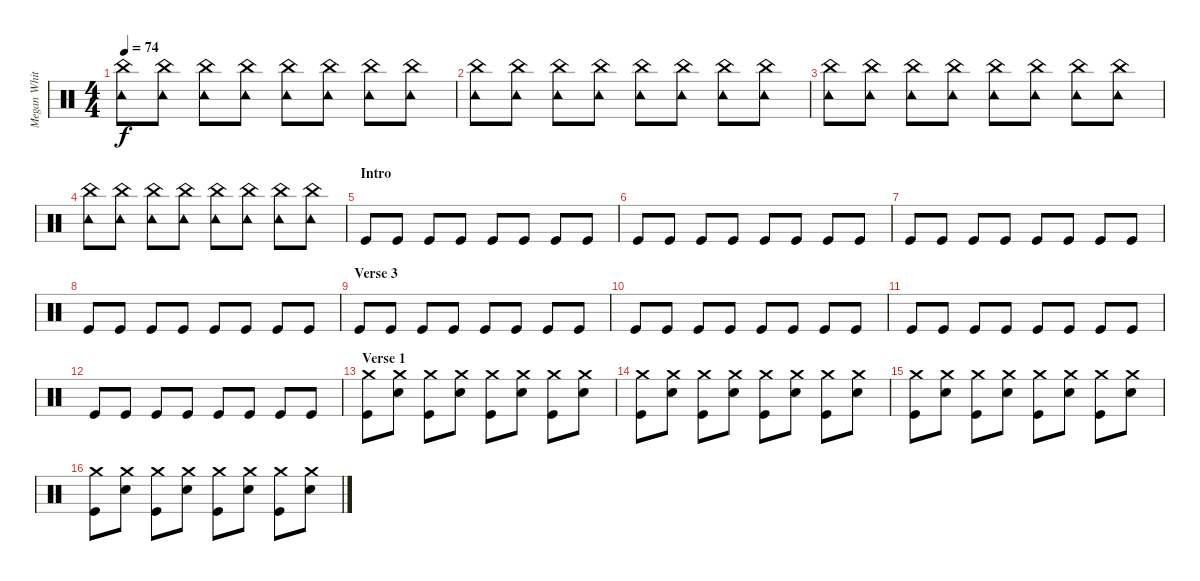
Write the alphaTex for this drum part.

\track ("Megan White" "Megan Whit") {instrument percussion}
\staff {score}
\articulation defaults
\ts (4 4)
\tempo 74
\clef neutral
\ks c
("China (hit)" "Tambourine (hit)").8{dy f} ("China (hit)" "Tambourine (hit)").8 ("China (hit)" "Tambourine (hit)").8 ("China (hit)" "Tambourine (hit)").8 ("China (hit)" "Tambourine (hit)").8 ("China (hit)" "Tambourine (hit)").8 ("China (hit)" "Tambourine (hit)").8 ("China (hit)" "Tambourine (hit)").8 |
("China (hit)" "Tambourine (hit)").8 ("China (hit)" "Tambourine (hit)").8 ("China (hit)" "Tambourine (hit)").8 ("China (hit)" "Tambourine (hit)").8 ("China (hit)" "Tambourine (hit)").8 ("China (hit)" "Tambourine (hit)").8 ("China (hit)" "Tambourine (hit)").8 ("China (hit)" "Tambourine (hit)").8 |
("China (hit)" "Tambourine (hit)").8 ("China (hit)" "Tambourine (hit)").8 ("China (hit)" "Tambourine (hit)").8 ("China (hit)" "Tambourine (hit)").8 ("China (hit)" "Tambourine (hit)").8 ("China (hit)" "Tambourine (hit)").8 ("China (hit)" "Tambourine (hit)").8 ("China (hit)" "Tambourine (hit)").8 |
("China (hit)" "Tambourine (hit)").8 ("China (hit)" "Tambourine (hit)").8 ("China (hit)" "Tambourine (hit)").8 ("China (hit)" "Tambourine (hit)").8 ("China (hit)" "Tambourine (hit)").8 ("China (hit)" "Tambourine (hit)").8 ("China (hit)" "Tambourine (hit)").8 ("China (hit)" "Tambourine (hit)").8 |
\section ("" "Intro")
"Kick (hit)".8 "Kick (hit)".8 "Kick (hit)".8 "Kick (hit)".8 "Kick (hit)".8 "Kick (hit)".8 "Kick (hit)".8 "Kick (hit)".8 |
"Kick (hit)".8 "Kick (hit)".8 "Kick (hit)".8 "Kick (hit)".8 "Kick (hit)".8 "Kick (hit)".8 "Kick (hit)".8 "Kick (hit)".8 |
"Kick (hit)".8 "Kick (hit)".8 "Kick (hit)".8 "Kick (hit)".8 "Kick (hit)".8 "Kick (hit)".8 "Kick (hit)".8 "Kick (hit)".8 |
"Kick (hit)".8 "Kick (hit)".8 "Kick (hit)".8 "Kick (hit)".8 "Kick (hit)".8 "Kick (hit)".8 "Kick (hit)".8 "Kick (hit)".8 |
\section ("" "Verse 3")
"Kick (hit)".8 "Kick (hit)".8 "Kick (hit)".8 "Kick (hit)".8 "Kick (hit)".8 "Kick (hit)".8 "Kick (hit)".8 "Kick (hit)".8 |
"Kick (hit)".8 "Kick (hit)".8 "Kick (hit)".8 "Kick (hit)".8 "Kick (hit)".8 "Kick (hit)".8 "Kick (hit)".8 "Kick (hit)".8 |
"Kick (hit)".8 "Kick (hit)".8 "Kick (hit)".8 "Kick (hit)".8 "Kick (hit)".8 "Kick (hit)".8 "Kick (hit)".8 "Kick (hit)".8 |
"Kick (hit)".8 "Kick (hit)".8 "Kick (hit)".8 "Kick (hit)".8 "Kick (hit)".8 "Kick (hit)".8 "Kick (hit)".8 "Kick (hit)".8 |
\section ("" "Verse 1")
("Crash medium (hit)" "Kick (hit)").8 ("Crash medium (hit)" "Snare (hit) 2").8 ("Crash medium (hit)" "Kick (hit)").8 ("Crash medium (hit)" "Snare (hit) 2").8 ("Crash medium (hit)" "Kick (hit)").8 ("Crash medium (hit)" "Snare (hit) 2").8 ("Crash medium (hit)" "Kick (hit)").8 ("Crash medium (hit)" "Snare (hit) 2").8 |
("Crash medium (hit)" "Kick (hit)").8 ("Crash medium (hit)" "Snare (hit) 2").8 ("Crash medium (hit)" "Kick (hit)").8 ("Crash medium (hit)" "Snare (hit) 2").8 ("Crash medium (hit)" "Kick (hit)").8 ("Crash medium (hit)" "Snare (hit) 2").8 ("Crash medium (hit)" "Kick (hit)").8 ("Crash medium (hit)" "Snare (hit) 2").8 |
("Crash medium (hit)" "Kick (hit)").8 ("Crash medium (hit)" "Snare (hit) 2").8 ("Crash medium (hit)" "Kick (hit)").8 ("Crash medium (hit)" "Snare (hit) 2").8 ("Crash medium (hit)" "Kick (hit)").8 ("Crash medium (hit)" "Snare (hit) 2").8 ("Crash medium (hit)" "Kick (hit)").8 ("Crash medium (hit)" "Snare (hit) 2").8 |
("Crash medium (hit)" "Kick (hit)").8 ("Crash medium (hit)" "Snare (hit) 2").8 ("Crash medium (hit)" "Kick (hit)").8 ("Crash medium (hit)" "Snare (hit) 2").8 ("Crash medium (hit)" "Kick (hit)").8 ("Crash medium (hit)" "Snare (hit) 2").8 ("Crash medium (hit)" "Kick (hit)").8 ("Crash medium (hit)" "Snare (hit) 2").8
